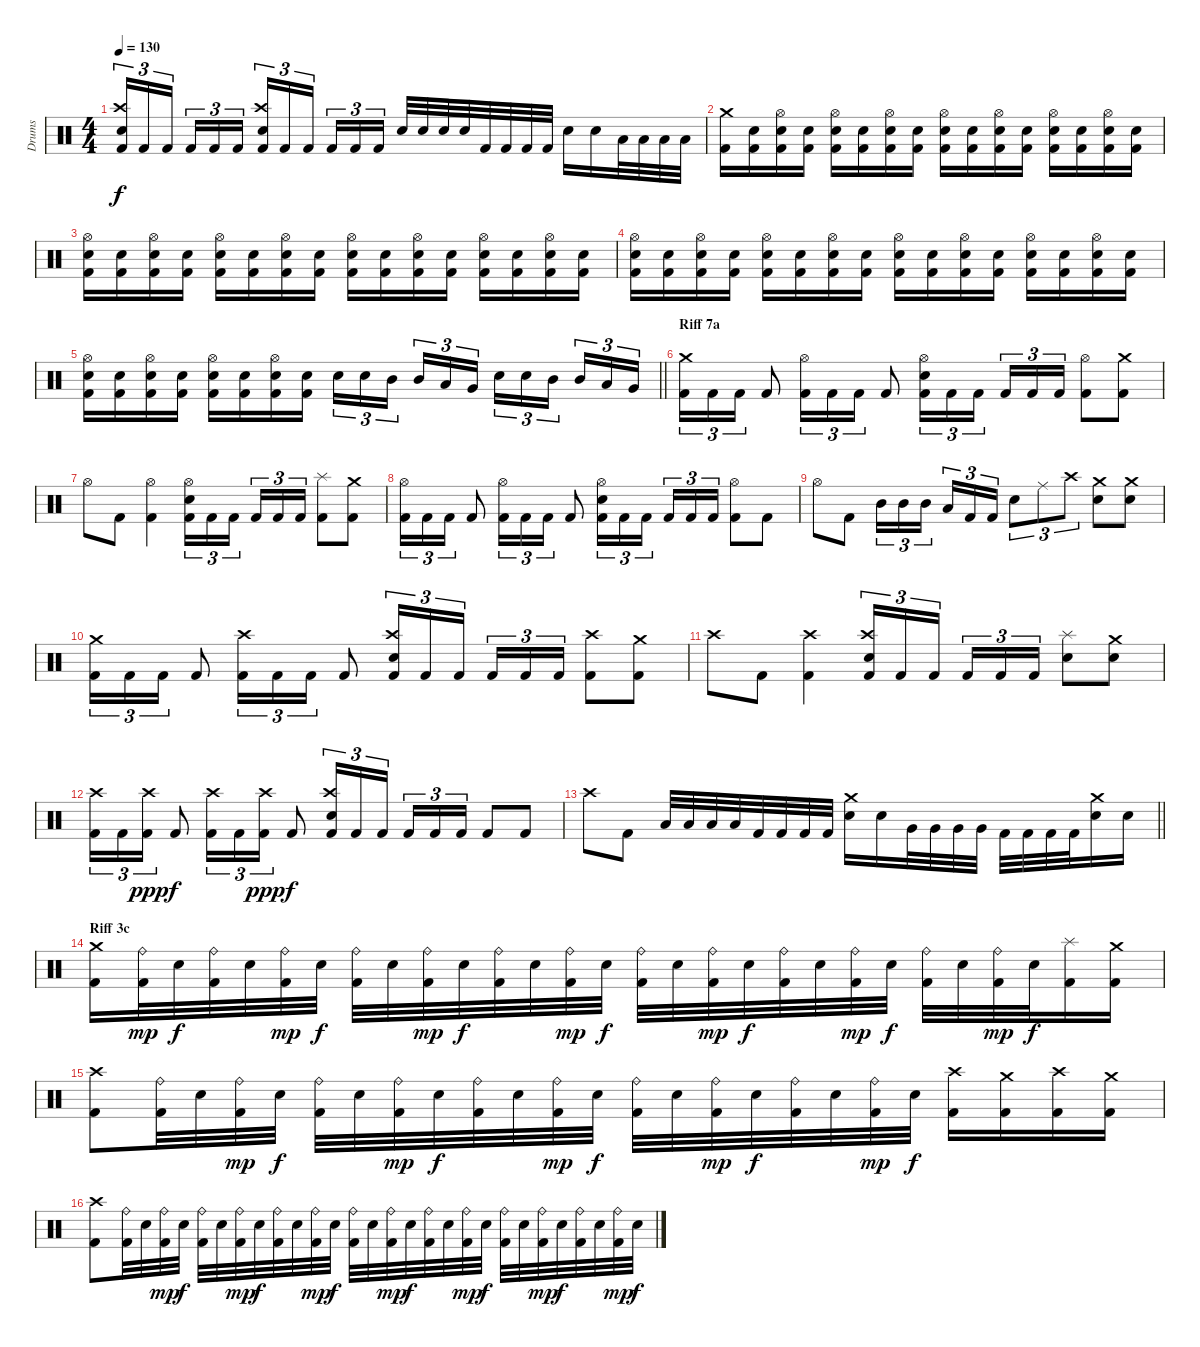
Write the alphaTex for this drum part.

\track ("Drums" "Drums") {instrument percussion}
\staff {score}
\articulation defaults
\ts (4 4)
\tempo 130
\clef neutral
\ks c
("Electric Snare (hit)" "Crash high (hit)" "Kick (hit) 2").16{tu (3 2) dy f} "Kick (hit) 2".16{tu (3 2)} "Kick (hit) 2".16{tu (3 2) beam splitsecondary} "Kick (hit) 2".16{tu (3 2)} "Kick (hit) 2".16{tu (3 2)} "Kick (hit) 2".16{tu (3 2)} ("Electric Snare (hit)" "Crash high (hit)" "Kick (hit) 2").16{tu (3 2)} "Kick (hit) 2".16{tu (3 2)} "Kick (hit) 2".16{tu (3 2) beam splitsecondary} "Kick (hit) 2".16{tu (3 2)} "Kick (hit) 2".16{tu (3 2)} "Kick (hit) 2".16{tu (3 2)} "Electric Snare (hit)".32 "Electric Snare (hit)".32 "Electric Snare (hit)".32 "Electric Snare (hit)".32 "Kick (hit) 2".32 "Kick (hit) 2".32 "Kick (hit) 2".32 "Kick (hit) 2".32 "Electric Snare (hit)".16 "Electric Snare (hit)".16 "Low Tom (hit)".32 "Low Tom (hit)".32 "Low Tom (hit)".32 "Low Tom (hit)".32 |
("Crash medium (hit)" "Kick (hit) 2").16 ("Electric Snare (hit)" "Kick (hit) 2").16 ("Hi-Hat (open)" "Electric Snare (hit)" "Kick (hit) 2").16 ("Electric Snare (hit)" "Kick (hit) 2").16 ("Hi-Hat (open)" "Electric Snare (hit)" "Kick (hit) 2").16 ("Electric Snare (hit)" "Kick (hit) 2").16 ("Hi-Hat (open)" "Electric Snare (hit)" "Kick (hit) 2").16 ("Electric Snare (hit)" "Kick (hit) 2").16 ("Hi-Hat (open)" "Electric Snare (hit)" "Kick (hit) 2").16 ("Electric Snare (hit)" "Kick (hit) 2").16 ("Hi-Hat (open)" "Electric Snare (hit)" "Kick (hit) 2").16 ("Electric Snare (hit)" "Kick (hit) 2").16 ("Hi-Hat (open)" "Electric Snare (hit)" "Kick (hit) 2").16 ("Electric Snare (hit)" "Kick (hit) 2").16 ("Hi-Hat (open)" "Electric Snare (hit)" "Kick (hit) 2").16 ("Electric Snare (hit)" "Kick (hit) 2").16 |
("Hi-Hat (open)" "Electric Snare (hit)" "Kick (hit) 2").16 ("Electric Snare (hit)" "Kick (hit) 2").16 ("Hi-Hat (open)" "Electric Snare (hit)" "Kick (hit) 2").16 ("Electric Snare (hit)" "Kick (hit) 2").16 ("Hi-Hat (open)" "Electric Snare (hit)" "Kick (hit) 2").16 ("Electric Snare (hit)" "Kick (hit) 2").16 ("Hi-Hat (open)" "Electric Snare (hit)" "Kick (hit) 2").16 ("Electric Snare (hit)" "Kick (hit) 2").16 ("Hi-Hat (open)" "Electric Snare (hit)" "Kick (hit) 2").16 ("Electric Snare (hit)" "Kick (hit) 2").16 ("Hi-Hat (open)" "Electric Snare (hit)" "Kick (hit) 2").16 ("Electric Snare (hit)" "Kick (hit) 2").16 ("Hi-Hat (open)" "Electric Snare (hit)" "Kick (hit) 2").16 ("Electric Snare (hit)" "Kick (hit) 2").16 ("Hi-Hat (open)" "Electric Snare (hit)" "Kick (hit) 2").16 ("Electric Snare (hit)" "Kick (hit) 2").16 |
("Hi-Hat (open)" "Electric Snare (hit)" "Kick (hit) 2").16 ("Electric Snare (hit)" "Kick (hit) 2").16 ("Hi-Hat (open)" "Electric Snare (hit)" "Kick (hit) 2").16 ("Electric Snare (hit)" "Kick (hit) 2").16 ("Hi-Hat (open)" "Electric Snare (hit)" "Kick (hit) 2").16 ("Electric Snare (hit)" "Kick (hit) 2").16 ("Hi-Hat (open)" "Electric Snare (hit)" "Kick (hit) 2").16 ("Electric Snare (hit)" "Kick (hit) 2").16 ("Hi-Hat (open)" "Electric Snare (hit)" "Kick (hit) 2").16 ("Electric Snare (hit)" "Kick (hit) 2").16 ("Hi-Hat (open)" "Electric Snare (hit)" "Kick (hit) 2").16 ("Electric Snare (hit)" "Kick (hit) 2").16 ("Hi-Hat (open)" "Electric Snare (hit)" "Kick (hit) 2").16 ("Electric Snare (hit)" "Kick (hit) 2").16 ("Hi-Hat (open)" "Electric Snare (hit)" "Kick (hit) 2").16 ("Electric Snare (hit)" "Kick (hit) 2").16 |
\barLineRight lightlight
("Hi-Hat (open)" "Electric Snare (hit)" "Kick (hit) 2").16 ("Electric Snare (hit)" "Kick (hit) 2").16 ("Hi-Hat (open)" "Electric Snare (hit)" "Kick (hit) 2").16 ("Electric Snare (hit)" "Kick (hit) 2").16 ("Hi-Hat (open)" "Electric Snare (hit)" "Kick (hit) 2").16 ("Electric Snare (hit)" "Kick (hit) 2").16 ("Hi-Hat (open)" "Electric Snare (hit)" "Kick (hit) 2").16 ("Electric Snare (hit)" "Kick (hit) 2").16 "Electric Snare (hit)".16{tu (3 2)} "Electric Snare (hit)".16{tu (3 2)} "Mid Tom (hit)".16{tu (3 2) beam splitsecondary} "Mid Tom (hit)".16{tu (3 2)} "Low Tom (hit)".16{tu (3 2)} "Very Low Tom (hit)".16{tu (3 2)} "Electric Snare (hit)".16{tu (3 2)} "Electric Snare (hit)".16{tu (3 2)} "Mid Tom (hit)".16{tu (3 2) beam splitsecondary} "Mid Tom (hit)".16{tu (3 2)} "Low Tom (hit)".16{tu (3 2)} "Very Low Tom (hit)".16{tu (3 2)} |
\section ("" "Riff 7a")
("Crash medium (hit)" "Kick (hit) 2").16{tu (3 2)} "Kick (hit) 2".16{tu (3 2)} "Kick (hit) 2".16{tu (3 2)} "Kick (hit) 2".8 ("Hi-Hat (open)" "Kick (hit) 2").16{tu (3 2)} "Kick (hit) 2".16{tu (3 2)} "Kick (hit) 2".16{tu (3 2)} "Kick (hit) 2".8 ("Kick (hit) 2" "Electric Snare (hit)" "Hi-Hat (open)").16{tu (3 2)} "Kick (hit) 2".16{tu (3 2)} "Kick (hit) 2".16{tu (3 2) beam splitsecondary} "Kick (hit) 2".16{tu (3 2)} "Kick (hit) 2".16{tu (3 2)} "Kick (hit) 2".16{tu (3 2)} ("Kick (hit) 2" "Hi-Hat (open)").8 ("Kick (hit) 2" "Crash medium (hit)").8 |
"Hi-Hat (open)".8 "Kick (hit) 2".8 ("Kick (hit) 2" "Hi-Hat (open)").4 ("Kick (hit) 2" "Electric Snare (hit)" "Hi-Hat (open)").16{tu (3 2)} "Kick (hit) 2".16{tu (3 2)} "Kick (hit) 2".16{tu (3 2) beam splitsecondary} "Kick (hit) 2".16{tu (3 2)} "Kick (hit) 2".16{tu (3 2)} "Kick (hit) 2".16{tu (3 2)} ("Kick (hit) 2" "Splash (hit)").8 ("Kick (hit) 2" "Crash medium (hit)").8 |
("Hi-Hat (open)" "Kick (hit) 2").16{tu (3 2)} "Kick (hit) 2".16{tu (3 2)} "Kick (hit) 2".16{tu (3 2)} "Kick (hit) 2".8 ("Hi-Hat (open)" "Kick (hit) 2").16{tu (3 2)} "Kick (hit) 2".16{tu (3 2)} "Kick (hit) 2".16{tu (3 2)} "Kick (hit) 2".8 ("Kick (hit) 2" "Electric Snare (hit)" "Hi-Hat (open)").16{tu (3 2)} "Kick (hit) 2".16{tu (3 2)} "Kick (hit) 2".16{tu (3 2) beam splitsecondary} "Kick (hit) 2".16{tu (3 2)} "Kick (hit) 2".16{tu (3 2)} "Kick (hit) 2".16{tu (3 2)} ("Kick (hit) 2" "Hi-Hat (open)").8 "Kick (hit) 2".8 |
"Hi-Hat (open)".8 "Kick (hit) 2".8 "Mid Tom (hit)".16{tu (3 2)} "Mid Tom (hit)".16{tu (3 2)} "Mid Tom (hit)".16{tu (3 2) beam splitsecondary} "Low Tom (hit)".16{tu (3 2)} "Kick (hit) 2".16{tu (3 2)} "Kick (hit) 2".16{tu (3 2)} "Electric Snare (hit)".8{tu (3 2)} "Ride (middle)".8{tu (3 2)} "Crash high (hit)".8{tu (3 2)} ("Crash medium (hit)" "Electric Snare (hit)").8 ("Electric Snare (hit)" "Crash medium (hit)").8 |
("Crash medium (hit)" "Kick (hit) 2").16{tu (3 2)} "Kick (hit) 2".16{tu (3 2)} "Kick (hit) 2".16{tu (3 2)} "Kick (hit) 2".8 ("Crash high (hit)" "Kick (hit) 2").16{tu (3 2)} "Kick (hit) 2".16{tu (3 2)} "Kick (hit) 2".16{tu (3 2)} "Kick (hit) 2".8 ("Kick (hit) 2" "Electric Snare (hit)" "Crash high (hit)").16{tu (3 2)} "Kick (hit) 2".16{tu (3 2)} "Kick (hit) 2".16{tu (3 2) beam splitsecondary} "Kick (hit) 2".16{tu (3 2)} "Kick (hit) 2".16{tu (3 2)} "Kick (hit) 2".16{tu (3 2)} ("Kick (hit) 2" "Crash high (hit)").8 ("Kick (hit) 2" "Crash medium (hit)").8 |
"Crash high (hit)".8 "Kick (hit) 2".8 ("Kick (hit) 2" "Crash high (hit)").4 ("Kick (hit) 2" "Electric Snare (hit)" "Crash high (hit)").16{tu (3 2)} "Kick (hit) 2".16{tu (3 2)} "Kick (hit) 2".16{tu (3 2) beam splitsecondary} "Kick (hit) 2".16{tu (3 2)} "Kick (hit) 2".16{tu (3 2)} "Kick (hit) 2".16{tu (3 2)} ("Splash (hit)" "Electric Snare (hit)").8 ("Crash medium (hit)" "Electric Snare (hit)").8 |
("Crash high (hit)" "Kick (hit) 2").16{tu (3 2)} "Kick (hit) 2".16{tu (3 2)} ("Crash high (hit)" "Kick (hit) 2").16{tu (3 2) dy ppp} "Kick (hit) 2".8{dy f} ("Crash high (hit)" "Kick (hit) 2").16{tu (3 2)} "Kick (hit) 2".16{tu (3 2)} ("Crash high (hit)" "Kick (hit) 2").16{tu (3 2) dy ppp} "Kick (hit) 2".8{dy f} ("Kick (hit) 2" "Electric Snare (hit)" "Crash high (hit)").16{tu (3 2)} "Kick (hit) 2".16{tu (3 2)} "Kick (hit) 2".16{tu (3 2) beam splitsecondary} "Kick (hit) 2".16{tu (3 2)} "Kick (hit) 2".16{tu (3 2)} "Kick (hit) 2".16{tu (3 2)} "Kick (hit) 2".8 "Kick (hit) 2".8 |
\barLineRight lightlight "Crash high (hit)".8 "Kick (hit) 2".8 "Low Tom (hit)".32 "Low Tom (hit)".32 "Low Tom (hit)".32 "Low Tom (hit)".32 "Kick (hit) 2".32 "Kick (hit) 2".32 "Kick (hit) 2".32 "Kick (hit) 2".32
("Crash medium (hit)" "Electric Snare (hit)").16 "Electric Snare (hit)".16 "Very Low Tom (hit)".32 "Very Low Tom (hit)".32 "Very Low Tom (hit)".32 "Very Low Tom (hit)".32 "Kick (hit) 2".32 "Kick (hit) 2".32 "Kick (hit) 2".32 "Kick (hit) 2".32 ("Electric Snare (hit)" "Crash medium (hit)").16 "Electric Snare (hit)".16 |
\section ("" "Riff 3c")
("Crash medium (hit)" "Kick (hit) 2").16 ("Ride (bell)" "Kick (hit) 2").32{dy mp} "Electric Snare (hit)".32{dy f} ("Ride (bell)" "Kick (hit) 2").32 "Electric Snare (hit)".32 ("Ride (bell)" "Kick (hit) 2").32{dy mp} "Electric Snare (hit)".32{dy f} ("Ride (bell)" "Kick (hit) 2").32 "Electric Snare (hit)".32 ("Ride (bell)" "Kick (hit) 2").32{dy mp} "Electric Snare (hit)".32{dy f} ("Ride (bell)" "Kick (hit) 2").32 "Electric Snare (hit)".32 ("Ride (bell)" "Kick (hit) 2").32{dy mp} "Electric Snare (hit)".32{dy f} ("Ride (bell)" "Kick (hit) 2").32 "Electric Snare (hit)".32 ("Ride (bell)" "Kick (hit) 2").32{dy mp} "Electric Snare (hit)".32{dy f} ("Ride (bell)" "Kick (hit) 2").32 "Electric Snare (hit)".32 ("Ride (bell)" "Kick (hit) 2").32{dy mp} "Electric Snare (hit)".32{dy f} ("Ride (bell)" "Kick (hit) 2").32 "Electric Snare (hit)".32 ("Ride (bell)" "Kick (hit) 2").32{dy mp} "Electric Snare (hit)".32{dy f} ("Kick (hit) 2" "Splash (hit)").16 ("Kick (hit) 2" "Crash medium (hit)").16 |
("Crash high (hit)" "Kick (hit) 2").8 ("Ride (bell)" "Kick (hit) 2").32 "Electric Snare (hit)".32 ("Ride (bell)" "Kick (hit) 2").32{dy mp} "Electric Snare (hit)".32{dy f} ("Ride (bell)" "Kick (hit) 2").32 "Electric Snare (hit)".32 ("Ride (bell)" "Kick (hit) 2").32{dy mp} "Electric Snare (hit)".32{dy f} ("Ride (bell)" "Kick (hit) 2").32 "Electric Snare (hit)".32 ("Ride (bell)" "Kick (hit) 2").32{dy mp} "Electric Snare (hit)".32{dy f} ("Ride (bell)" "Kick (hit) 2").32 "Electric Snare (hit)".32 ("Ride (bell)" "Kick (hit) 2").32{dy mp} "Electric Snare (hit)".32{dy f} ("Ride (bell)" "Kick (hit) 2").32 "Electric Snare (hit)".32 ("Ride (bell)" "Kick (hit) 2").32{dy mp} "Electric Snare (hit)".32{dy f} ("Crash high (hit)" "Kick (hit) 2").16 ("Crash medium (hit)" "Kick (hit) 2").16 ("Crash high (hit)" "Kick (hit) 2").16 ("Crash medium (hit)" "Kick (hit) 2").16 |
("Crash high (hit)" "Kick (hit) 2").8 ("Ride (bell)" "Kick (hit) 2").32 "Electric Snare (hit)".32 ("Ride (bell)" "Kick (hit) 2").32{dy mp} "Electric Snare (hit)".32{dy f} ("Ride (bell)" "Kick (hit) 2").32 "Electric Snare (hit)".32 ("Ride (bell)" "Kick (hit) 2").32{dy mp} "Electric Snare (hit)".32{dy f} ("Ride (bell)" "Kick (hit) 2").32 "Electric Snare (hit)".32 ("Ride (bell)" "Kick (hit) 2").32{dy mp} "Electric Snare (hit)".32{dy f} ("Ride (bell)" "Kick (hit) 2").32 "Electric Snare (hit)".32 ("Ride (bell)" "Kick (hit) 2").32{dy mp} "Electric Snare (hit)".32{dy f} ("Ride (bell)" "Kick (hit) 2").32 "Electric Snare (hit)".32 ("Ride (bell)" "Kick (hit) 2").32{dy mp} "Electric Snare (hit)".32{dy f} ("Ride (bell)" "Kick (hit) 2").32 "Electric Snare (hit)".32 ("Ride (bell)" "Kick (hit) 2").32{dy mp} "Electric Snare (hit)".32{dy f} ("Ride (bell)" "Kick (hit) 2").32 "Electric Snare (hit)".32 ("Ride (bell)" "Kick (hit) 2").32{dy mp} "Electric Snare (hit)".32{dy f}
